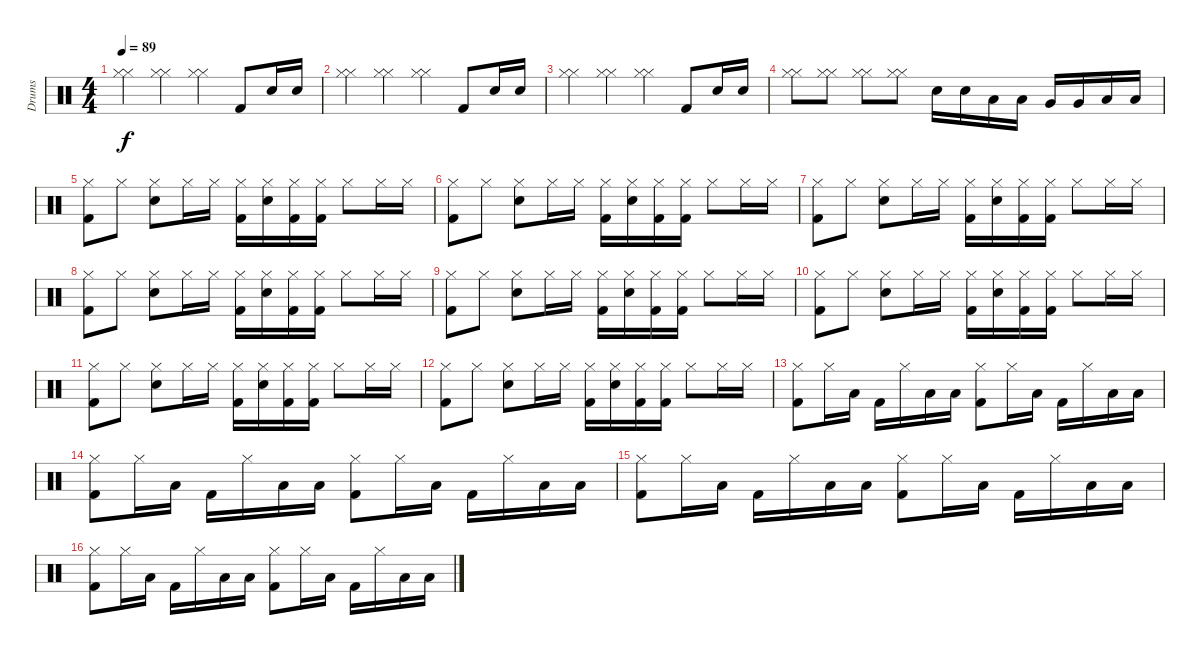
\track ("Drums" "Drums") {instrument percussion}
\staff {score}
\articulation defaults
\ts (4 4)
\tempo 89
\clef neutral
\ks c
("Hi-Hat (closed)" "Hi-Hat (closed)").4{dy f} ("Hi-Hat (closed)" "Hi-Hat (closed)").4 ("Hi-Hat (closed)" "Hi-Hat (closed)").4 "Kick (hit) 2".8 "Electric Snare (hit)".16 "Electric Snare (hit)".16 |
("Hi-Hat (closed)" "Hi-Hat (closed)").4 ("Hi-Hat (closed)" "Hi-Hat (closed)").4 ("Hi-Hat (closed)" "Hi-Hat (closed)").4 "Kick (hit) 2".8 "Electric Snare (hit)".16 "Electric Snare (hit)".16 |
("Hi-Hat (closed)" "Hi-Hat (closed)").4 ("Hi-Hat (closed)" "Hi-Hat (closed)").4 ("Hi-Hat (closed)" "Hi-Hat (closed)").4 "Kick (hit) 2".8 "Electric Snare (hit)".16 "Electric Snare (hit)".16 |
("Hi-Hat (closed)" "Hi-Hat (closed)").8 ("Hi-Hat (closed)" "Hi-Hat (closed)").8 ("Hi-Hat (closed)" "Hi-Hat (closed)").8 ("Hi-Hat (closed)" "Hi-Hat (closed)").8 "Electric Snare (hit)".16 "Electric Snare (hit)".16 "Low Tom (hit)".16 "Low Tom (hit)".16 "Very Low Tom (hit)".16 "Very Low Tom (hit)".16 "Low Floor Tom (hit)".16 "Low Floor Tom (hit)".16 |
("Hi-Hat (closed)" "Kick (hit) 2").8 "Hi-Hat (closed)".8 ("Hi-Hat (closed)" "Electric Snare (hit)").8 "Hi-Hat (closed)".16 "Hi-Hat (closed)".16 ("Hi-Hat (closed)" "Kick (hit) 2").16 ("Hi-Hat (closed)" "Electric Snare (hit)").16 ("Hi-Hat (closed)" "Kick (hit) 2").16 ("Hi-Hat (closed)" "Kick (hit) 2").16 "Hi-Hat (closed)".8 "Hi-Hat (closed)".16 "Hi-Hat (closed)".16 |
("Hi-Hat (closed)" "Kick (hit) 2").8 "Hi-Hat (closed)".8 ("Hi-Hat (closed)" "Electric Snare (hit)").8 "Hi-Hat (closed)".16 "Hi-Hat (closed)".16 ("Hi-Hat (closed)" "Kick (hit) 2").16 ("Hi-Hat (closed)" "Electric Snare (hit)").16 ("Hi-Hat (closed)" "Kick (hit) 2").16 ("Hi-Hat (closed)" "Kick (hit) 2").16 "Hi-Hat (closed)".8 "Hi-Hat (closed)".16 "Hi-Hat (closed)".16 |
("Hi-Hat (closed)" "Kick (hit) 2").8 "Hi-Hat (closed)".8 ("Hi-Hat (closed)" "Electric Snare (hit)").8 "Hi-Hat (closed)".16 "Hi-Hat (closed)".16 ("Hi-Hat (closed)" "Kick (hit) 2").16 ("Hi-Hat (closed)" "Electric Snare (hit)").16 ("Hi-Hat (closed)" "Kick (hit) 2").16 ("Hi-Hat (closed)" "Kick (hit) 2").16 "Hi-Hat (closed)".8 "Hi-Hat (closed)".16 "Hi-Hat (closed)".16 |
("Hi-Hat (closed)" "Kick (hit) 2").8 "Hi-Hat (closed)".8 ("Hi-Hat (closed)" "Electric Snare (hit)").8 "Hi-Hat (closed)".16 "Hi-Hat (closed)".16 ("Hi-Hat (closed)" "Kick (hit) 2").16 ("Hi-Hat (closed)" "Electric Snare (hit)").16 ("Hi-Hat (closed)" "Kick (hit) 2").16 ("Hi-Hat (closed)" "Kick (hit) 2").16 "Hi-Hat (closed)".8 "Hi-Hat (closed)".16 "Hi-Hat (closed)".16 |
("Hi-Hat (closed)" "Kick (hit) 2").8 "Hi-Hat (closed)".8 ("Hi-Hat (closed)" "Electric Snare (hit)").8 "Hi-Hat (closed)".16 "Hi-Hat (closed)".16 ("Hi-Hat (closed)" "Kick (hit) 2").16 ("Hi-Hat (closed)" "Electric Snare (hit)").16 ("Hi-Hat (closed)" "Kick (hit) 2").16 ("Hi-Hat (closed)" "Kick (hit) 2").16 "Hi-Hat (closed)".8 "Hi-Hat (closed)".16 "Hi-Hat (closed)".16 |
("Hi-Hat (closed)" "Kick (hit) 2").8 "Hi-Hat (closed)".8 ("Hi-Hat (closed)" "Electric Snare (hit)").8 "Hi-Hat (closed)".16 "Hi-Hat (closed)".16 ("Hi-Hat (closed)" "Kick (hit) 2").16 ("Hi-Hat (closed)" "Electric Snare (hit)").16 ("Hi-Hat (closed)" "Kick (hit) 2").16 ("Hi-Hat (closed)" "Kick (hit) 2").16 "Hi-Hat (closed)".8 "Hi-Hat (closed)".16 "Hi-Hat (closed)".16 |
("Hi-Hat (closed)" "Kick (hit) 2").8 "Hi-Hat (closed)".8 ("Hi-Hat (closed)" "Electric Snare (hit)").8 "Hi-Hat (closed)".16 "Hi-Hat (closed)".16 ("Hi-Hat (closed)" "Kick (hit) 2").16 ("Hi-Hat (closed)" "Electric Snare (hit)").16 ("Hi-Hat (closed)" "Kick (hit) 2").16 ("Hi-Hat (closed)" "Kick (hit) 2").16 "Hi-Hat (closed)".8 "Hi-Hat (closed)".16 "Hi-Hat (closed)".16 |
("Hi-Hat (closed)" "Kick (hit) 2").8 "Hi-Hat (closed)".8 ("Hi-Hat (closed)" "Electric Snare (hit)").8 "Hi-Hat (closed)".16 "Hi-Hat (closed)".16 ("Hi-Hat (closed)" "Kick (hit) 2").16 ("Hi-Hat (closed)" "Electric Snare (hit)").16 ("Hi-Hat (closed)" "Kick (hit) 2").16 ("Hi-Hat (closed)" "Kick (hit) 2").16 "Hi-Hat (closed)".8 "Hi-Hat (closed)".16 "Hi-Hat (closed)".16 |
("Hi-Hat (closed)" "Kick (hit) 2").8 "Hi-Hat (closed)".16 "Low Tom (hit)".16 "Kick (hit) 2".16 "Hi-Hat (closed)".16 "Low Tom (hit)".16 "Low Tom (hit)".16 ("Hi-Hat (closed)" "Kick (hit) 2").8 "Hi-Hat (closed)".16 "Low Tom (hit)".16 "Kick (hit) 2".16 "Hi-Hat (closed)".16 "Low Tom (hit)".16 "Low Tom (hit)".16 |
("Hi-Hat (closed)" "Kick (hit) 2").8 "Hi-Hat (closed)".16 "Low Tom (hit)".16 "Kick (hit) 2".16 "Hi-Hat (closed)".16 "Low Tom (hit)".16 "Low Tom (hit)".16 ("Hi-Hat (closed)" "Kick (hit) 2").8 "Hi-Hat (closed)".16 "Low Tom (hit)".16 "Kick (hit) 2".16 "Hi-Hat (closed)".16 "Low Tom (hit)".16 "Low Tom (hit)".16 |
("Hi-Hat (closed)" "Kick (hit) 2").8 "Hi-Hat (closed)".16 "Low Tom (hit)".16 "Kick (hit) 2".16 "Hi-Hat (closed)".16 "Low Tom (hit)".16 "Low Tom (hit)".16 ("Hi-Hat (closed)" "Kick (hit) 2").8 "Hi-Hat (closed)".16 "Low Tom (hit)".16 "Kick (hit) 2".16 "Hi-Hat (closed)".16 "Low Tom (hit)".16 "Low Tom (hit)".16 |
("Hi-Hat (closed)" "Kick (hit) 2").8 "Hi-Hat (closed)".16 "Low Tom (hit)".16 "Kick (hit) 2".16 "Hi-Hat (closed)".16 "Low Tom (hit)".16 "Low Tom (hit)".16 ("Hi-Hat (closed)" "Kick (hit) 2").8 "Hi-Hat (closed)".16 "Low Tom (hit)".16 "Kick (hit) 2".16 "Hi-Hat (closed)".16 "Low Tom (hit)".16 "Low Tom (hit)".16
